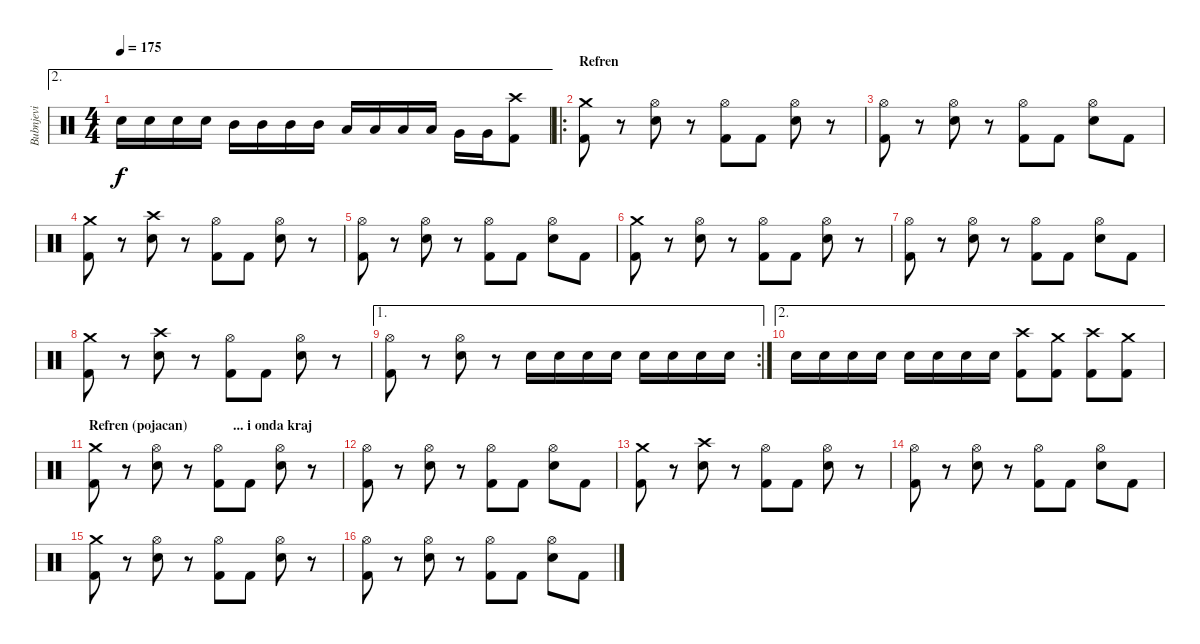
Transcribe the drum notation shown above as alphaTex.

\track ("Bubnjevi" "Bubnjevi") {instrument percussion}
\staff {score}
\articulation defaults
\ae 2
\ts (4 4)
\tempo 175
\clef neutral
\ks c "Electric Snare (hit)".16{dy f} "Electric Snare (hit)".16 "Electric Snare (hit)".16 "Electric Snare (hit)".16 "Mid Tom (hit)".16 "Mid Tom (hit)".16 "Mid Tom (hit)".16 "Mid Tom (hit)".16 "Low Tom (hit)".16 "Low Tom (hit)".16 "Low Tom (hit)".16 "Low Tom (hit)".16 "Very Low Tom (hit)".16 "Very Low Tom (hit)".16
("Crash high (hit)" "Kick (hit) 2").8 |
\ro
\section ("" "Refren")
("Crash medium (hit)" "Kick (hit) 2").8 r.8 ("Hi-Hat (open)" "Electric Snare (hit)").8 r.8 ("Hi-Hat (open)" "Kick (hit) 2").8 "Kick (hit) 2".8 ("Hi-Hat (open)" "Electric Snare (hit)").8 r.8 |
("Hi-Hat (open)" "Kick (hit) 2").8 r.8 ("Hi-Hat (open)" "Electric Snare (hit)").8 r.8 ("Hi-Hat (open)" "Kick (hit) 2").8 "Kick (hit) 2".8 ("Hi-Hat (open)" "Electric Snare (hit)").8 "Kick (hit) 2".8 |
("Crash medium (hit)" "Kick (hit) 2").8 r.8 ("Crash high (hit)" "Electric Snare (hit)").8 r.8 ("Hi-Hat (open)" "Kick (hit) 2").8 "Kick (hit) 2".8 ("Hi-Hat (open)" "Electric Snare (hit)").8 r.8 |
("Hi-Hat (open)" "Kick (hit) 2").8 r.8 ("Hi-Hat (open)" "Electric Snare (hit)").8 r.8 ("Hi-Hat (open)" "Kick (hit) 2").8 "Kick (hit) 2".8 ("Hi-Hat (open)" "Electric Snare (hit)").8 "Kick (hit) 2".8 |
("Crash medium (hit)" "Kick (hit) 2").8 r.8 ("Hi-Hat (open)" "Electric Snare (hit)").8 r.8 ("Hi-Hat (open)" "Kick (hit) 2").8 "Kick (hit) 2".8 ("Hi-Hat (open)" "Electric Snare (hit)").8 r.8 |
("Hi-Hat (open)" "Kick (hit) 2").8 r.8 ("Hi-Hat (open)" "Electric Snare (hit)").8 r.8 ("Hi-Hat (open)" "Kick (hit) 2").8 "Kick (hit) 2".8 ("Hi-Hat (open)" "Electric Snare (hit)").8 "Kick (hit) 2".8 |
("Crash medium (hit)" "Kick (hit) 2").8 r.8 ("Crash high (hit)" "Electric Snare (hit)").8 r.8 ("Hi-Hat (open)" "Kick (hit) 2").8 "Kick (hit) 2".8 ("Hi-Hat (open)" "Electric Snare (hit)").8 r.8 |
\ae 1
\rc 2
("Hi-Hat (open)" "Kick (hit) 2").8 r.8 ("Hi-Hat (open)" "Electric Snare (hit)").8 r.8 "Electric Snare (hit)".16 "Electric Snare (hit)".16 "Electric Snare (hit)".16 "Electric Snare (hit)".16 "Electric Snare (hit)".16 "Electric Snare (hit)".16 "Electric Snare (hit)".16 "Electric Snare (hit)".16 |
\ae 2 "Electric Snare (hit)".16 "Electric Snare (hit)".16 "Electric Snare (hit)".16 "Electric Snare (hit)".16 "Electric Snare (hit)".16 "Electric Snare (hit)".16 "Electric Snare (hit)".16 "Electric Snare (hit)".16
("Crash high (hit)" "Kick (hit) 2").8 ("Crash medium (hit)" "Kick (hit) 2").8 ("Crash high (hit)" "Kick (hit) 2").8 ("Crash medium (hit)" "Kick (hit) 2").8 |
\section ("" "Refren (pojacan)             ... i onda kraj")
("Crash medium (hit)" "Kick (hit) 2").8 r.8 ("Hi-Hat (open)" "Electric Snare (hit)").8 r.8 ("Hi-Hat (open)" "Kick (hit) 2").8 "Kick (hit) 2".8 ("Hi-Hat (open)" "Electric Snare (hit)").8 r.8 |
("Hi-Hat (open)" "Kick (hit) 2").8 r.8 ("Hi-Hat (open)" "Electric Snare (hit)").8 r.8 ("Hi-Hat (open)" "Kick (hit) 2").8 "Kick (hit) 2".8 ("Hi-Hat (open)" "Electric Snare (hit)").8 "Kick (hit) 2".8 |
("Crash medium (hit)" "Kick (hit) 2").8 r.8 ("Crash high (hit)" "Electric Snare (hit)").8 r.8 ("Hi-Hat (open)" "Kick (hit) 2").8 "Kick (hit) 2".8 ("Hi-Hat (open)" "Electric Snare (hit)").8 r.8 |
("Hi-Hat (open)" "Kick (hit) 2").8 r.8 ("Hi-Hat (open)" "Electric Snare (hit)").8 r.8 ("Hi-Hat (open)" "Kick (hit) 2").8 "Kick (hit) 2".8 ("Hi-Hat (open)" "Electric Snare (hit)").8 "Kick (hit) 2".8 |
("Crash medium (hit)" "Kick (hit) 2").8 r.8 ("Hi-Hat (open)" "Electric Snare (hit)").8 r.8 ("Hi-Hat (open)" "Kick (hit) 2").8 "Kick (hit) 2".8 ("Hi-Hat (open)" "Electric Snare (hit)").8 r.8 |
("Hi-Hat (open)" "Kick (hit) 2").8 r.8 ("Hi-Hat (open)" "Electric Snare (hit)").8 r.8 ("Hi-Hat (open)" "Kick (hit) 2").8 "Kick (hit) 2".8 ("Hi-Hat (open)" "Electric Snare (hit)").8 "Kick (hit) 2".8
